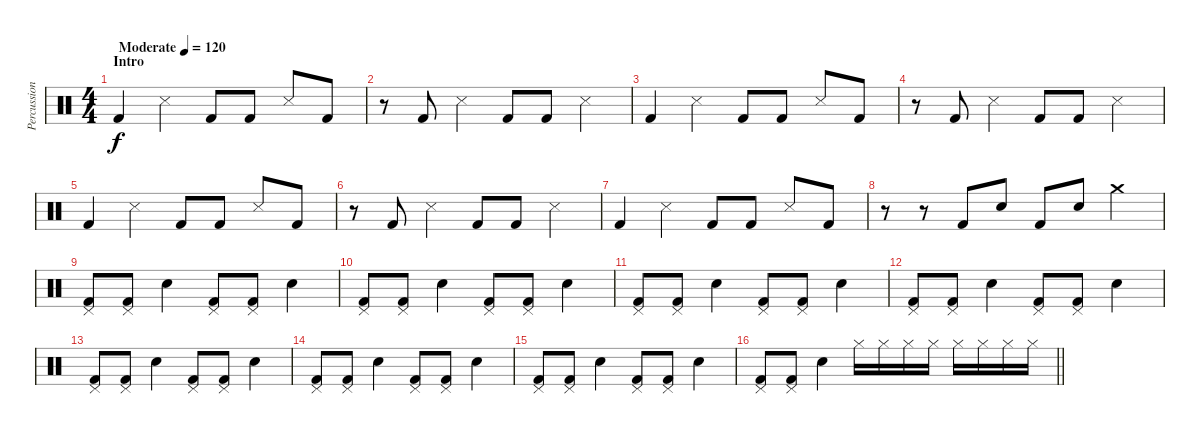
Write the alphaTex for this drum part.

\track ("Percussion" "Percussion") {instrument percussion}
\staff {score}
\articulation defaults
\ts (4 4)
\section ("" "Intro")
\tempo (120 "Moderate")
\clef neutral
\ks c "Kick (hit) 2".4{dy f} "Snare (side stick) 3".4 "Kick (hit) 2".8 "Kick (hit) 2".8 "Snare (side stick) 3".8 "Kick (hit) 2".8
|
r.8 "Kick (hit) 2".8 "Snare (side stick) 3".4 "Kick (hit) 2".8 "Kick (hit) 2".8 "Snare (side stick) 3".4 |
"Kick (hit) 2".4 "Snare (side stick) 3".4 "Kick (hit) 2".8 "Kick (hit) 2".8 "Snare (side stick) 3".8 "Kick (hit) 2".8 |
r.8 "Kick (hit) 2".8 "Snare (side stick) 3".4 "Kick (hit) 2".8 "Kick (hit) 2".8 "Snare (side stick) 3".4 |
"Kick (hit) 2".4 "Snare (side stick) 3".4 "Kick (hit) 2".8 "Kick (hit) 2".8 "Snare (side stick) 3".8 "Kick (hit) 2".8 |
r.8 "Kick (hit) 2".8 "Snare (side stick) 3".4 "Kick (hit) 2".8 "Kick (hit) 2".8 "Snare (side stick) 3".4 |
"Kick (hit) 2".4 "Snare (side stick) 3".4 "Kick (hit) 2".8 "Kick (hit) 2".8 "Snare (side stick) 3".8 "Kick (hit) 2".8 |
r.8 r.8 "Kick (hit) 2".8 "Snare (hit) 2".8 "Kick (hit) 2".8 "Snare (hit) 2".8 "Crash medium (hit)".4 |
("Kick (hit) 2" "Pedal Hi-Hat (hit)").8 ("Kick (hit) 2" "Pedal Hi-Hat (hit)").8 "Electric Snare (hit)".4 ("Kick (hit) 2" "Pedal Hi-Hat (hit)").8 ("Kick (hit) 2" "Pedal Hi-Hat (hit)").8 "Electric Snare (hit)".4 |
("Kick (hit) 2" "Pedal Hi-Hat (hit)").8 ("Kick (hit) 2" "Pedal Hi-Hat (hit)").8 "Electric Snare (hit)".4 ("Kick (hit) 2" "Pedal Hi-Hat (hit)").8 ("Kick (hit) 2" "Pedal Hi-Hat (hit)").8 "Electric Snare (hit)".4 |
("Kick (hit) 2" "Pedal Hi-Hat (hit)").8 ("Kick (hit) 2" "Pedal Hi-Hat (hit)").8 "Electric Snare (hit)".4 ("Kick (hit) 2" "Pedal Hi-Hat (hit)").8 ("Kick (hit) 2" "Pedal Hi-Hat (hit)").8 "Electric Snare (hit)".4 |
("Kick (hit) 2" "Pedal Hi-Hat (hit)").8 ("Kick (hit) 2" "Pedal Hi-Hat (hit)").8 "Electric Snare (hit)".4 ("Kick (hit) 2" "Pedal Hi-Hat (hit)").8 ("Kick (hit) 2" "Pedal Hi-Hat (hit)").8 "Electric Snare (hit)".4 |
("Kick (hit) 2" "Pedal Hi-Hat (hit)").8 ("Kick (hit) 2" "Pedal Hi-Hat (hit)").8 "Electric Snare (hit)".4 ("Kick (hit) 2" "Pedal Hi-Hat (hit)").8 ("Kick (hit) 2" "Pedal Hi-Hat (hit)").8 "Electric Snare (hit)".4 |
("Kick (hit) 2" "Pedal Hi-Hat (hit)").8 ("Kick (hit) 2" "Pedal Hi-Hat (hit)").8 "Electric Snare (hit)".4 ("Kick (hit) 2" "Pedal Hi-Hat (hit)").8 ("Kick (hit) 2" "Pedal Hi-Hat (hit)").8 "Electric Snare (hit)".4 |
("Kick (hit) 2" "Pedal Hi-Hat (hit)").8 ("Kick (hit) 2" "Pedal Hi-Hat (hit)").8 "Electric Snare (hit)".4 ("Kick (hit) 2" "Pedal Hi-Hat (hit)").8 ("Kick (hit) 2" "Pedal Hi-Hat (hit)").8 "Electric Snare (hit)".4 |
\barLineRight lightlight
("Kick (hit) 2" "Pedal Hi-Hat (hit)").8 ("Kick (hit) 2" "Pedal Hi-Hat (hit)").8 "Electric Snare (hit)".4 "Hi-Hat (closed)".16 "Hi-Hat (closed)".16 "Hi-Hat (closed)".16 "Hi-Hat (closed)".16 "Hi-Hat (closed)".16 "Hi-Hat (closed)".16 "Hi-Hat (closed)".16 "Hi-Hat (closed)".16
